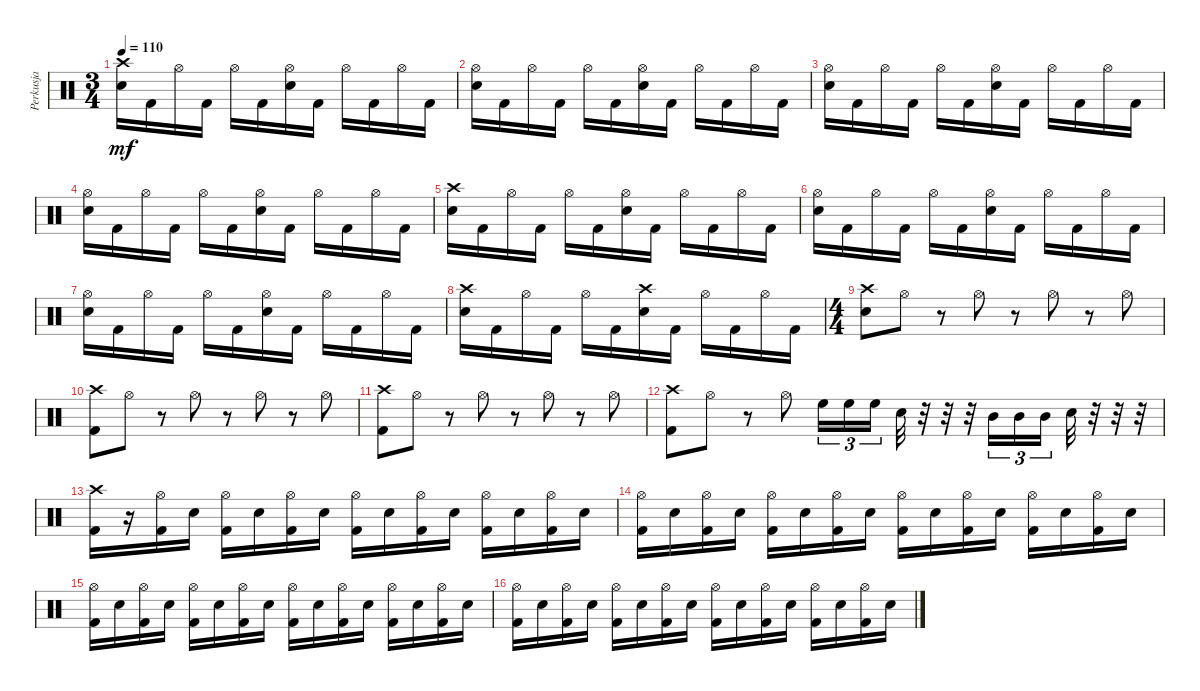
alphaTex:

\track ("Perkusja" "Perkusja") {instrument percussion}
\staff {score}
\articulation defaults
\ts (3 4)
\tempo 110
\clef neutral
\ks c
("Crash high (hit)" "Snare (hit) 2").16{dy mf} "Kick (hit) 2".16 "Hi-Hat (open)".16 "Kick (hit) 2".16 "Hi-Hat (open)".16 "Kick (hit) 2".16 ("Hi-Hat (open)" "Snare (hit) 2").16 "Kick (hit) 2".16 "Hi-Hat (open)".16 "Kick (hit) 2".16 "Hi-Hat (open)".16 "Kick (hit) 2".16 |
("Hi-Hat (open)" "Snare (hit) 2").16 "Kick (hit) 2".16 "Hi-Hat (open)".16 "Kick (hit) 2".16 "Hi-Hat (open)".16 "Kick (hit) 2".16 ("Hi-Hat (open)" "Snare (hit) 2").16 "Kick (hit) 2".16 "Hi-Hat (open)".16 "Kick (hit) 2".16 "Hi-Hat (open)".16 "Kick (hit) 2".16 |
("Hi-Hat (open)" "Snare (hit) 2").16 "Kick (hit) 2".16 "Hi-Hat (open)".16 "Kick (hit) 2".16 "Hi-Hat (open)".16 "Kick (hit) 2".16 ("Hi-Hat (open)" "Snare (hit) 2").16 "Kick (hit) 2".16 "Hi-Hat (open)".16 "Kick (hit) 2".16 "Hi-Hat (open)".16 "Kick (hit) 2".16 |
("Hi-Hat (open)" "Snare (hit) 2").16 "Kick (hit) 2".16 "Hi-Hat (open)".16 "Kick (hit) 2".16 "Hi-Hat (open)".16 "Kick (hit) 2".16 ("Hi-Hat (open)" "Snare (hit) 2").16 "Kick (hit) 2".16 "Hi-Hat (open)".16 "Kick (hit) 2".16 "Hi-Hat (open)".16 "Kick (hit) 2".16 |
("Crash high (hit)" "Snare (hit) 2").16 "Kick (hit) 2".16 "Hi-Hat (open)".16 "Kick (hit) 2".16 "Hi-Hat (open)".16 "Kick (hit) 2".16 ("Hi-Hat (open)" "Snare (hit) 2").16 "Kick (hit) 2".16 "Hi-Hat (open)".16 "Kick (hit) 2".16 "Hi-Hat (open)".16 "Kick (hit) 2".16 |
("Hi-Hat (open)" "Snare (hit) 2").16 "Kick (hit) 2".16 "Hi-Hat (open)".16 "Kick (hit) 2".16 "Hi-Hat (open)".16 "Kick (hit) 2".16 ("Hi-Hat (open)" "Snare (hit) 2").16 "Kick (hit) 2".16 "Hi-Hat (open)".16 "Kick (hit) 2".16 "Hi-Hat (open)".16 "Kick (hit) 2".16 |
("Hi-Hat (open)" "Snare (hit) 2").16 "Kick (hit) 2".16 "Hi-Hat (open)".16 "Kick (hit) 2".16 "Hi-Hat (open)".16 "Kick (hit) 2".16 ("Hi-Hat (open)" "Snare (hit) 2").16 "Kick (hit) 2".16 "Hi-Hat (open)".16 "Kick (hit) 2".16 "Hi-Hat (open)".16 "Kick (hit) 2".16 |
("Crash high (hit)" "Snare (hit) 2").16 "Kick (hit) 2".16 "Hi-Hat (open)".16 "Kick (hit) 2".16 "Hi-Hat (open)".16 "Kick (hit) 2".16 ("Crash high (hit)" "Snare (hit) 2").16 "Kick (hit) 2".16 "Hi-Hat (open)".16 "Kick (hit) 2".16 "Hi-Hat (open)".16 "Kick (hit) 2".16 |
\ts (4 4)
("Crash high (hit)" "Snare (hit) 2").8 "Hi-Hat (open)".8 r.8 "Hi-Hat (open)".8 r.8 "Hi-Hat (open)".8 r.8 "Hi-Hat (open)".8 |
("Crash high (hit)" "Kick (hit) 2").8 "Hi-Hat (open)".8 r.8 "Hi-Hat (open)".8 r.8 "Hi-Hat (open)".8 r.8 "Hi-Hat (open)".8 |
("Crash high (hit)" "Kick (hit) 2").8 "Hi-Hat (open)".8 r.8 "Hi-Hat (open)".8 r.8 "Hi-Hat (open)".8 r.8 "Hi-Hat (open)".8 |
("Crash high (hit)" "Kick (hit) 2").8 "Hi-Hat (open)".8 r.8 "Hi-Hat (open)".8 "High Floor Tom (hit)".16{tu (3 2)} "High Floor Tom (hit)".16{tu (3 2)} "High Floor Tom (hit)".16{tu (3 2) beam splitsecondary} "Snare (hit) 2".32 r.32 r.32 r.32 "Mid Tom (hit)".16{tu (3 2)} "Mid Tom (hit)".16{tu (3 2)} "Mid Tom (hit)".16{tu (3 2) beam splitsecondary} "Snare (hit) 2".32 r.32 r.32 r.32 |
("Crash high (hit)" "Kick (hit) 2").16 r.16 ("Hi-Hat (open)" "Kick (hit) 2").16 "Snare (hit) 2".16 ("Hi-Hat (open)" "Kick (hit) 2").16 "Snare (hit) 2".16 ("Hi-Hat (open)" "Kick (hit) 2").16 "Snare (hit) 2".16 ("Hi-Hat (open)" "Kick (hit) 2").16 "Snare (hit) 2".16 ("Hi-Hat (open)" "Kick (hit) 2").16 "Snare (hit) 2".16 ("Hi-Hat (open)" "Kick (hit) 2").16 "Snare (hit) 2".16 ("Hi-Hat (open)" "Kick (hit) 2").16 "Snare (hit) 2".16 |
("Hi-Hat (open)" "Kick (hit) 2").16 "Snare (hit) 2".16 ("Hi-Hat (open)" "Kick (hit) 2").16 "Snare (hit) 2".16 ("Hi-Hat (open)" "Kick (hit) 2").16 "Snare (hit) 2".16 ("Hi-Hat (open)" "Kick (hit) 2").16 "Snare (hit) 2".16 ("Hi-Hat (open)" "Kick (hit) 2").16 "Snare (hit) 2".16 ("Hi-Hat (open)" "Kick (hit) 2").16 "Snare (hit) 2".16 ("Hi-Hat (open)" "Kick (hit) 2").16 "Snare (hit) 2".16 ("Hi-Hat (open)" "Kick (hit) 2").16 "Snare (hit) 2".16 |
("Hi-Hat (open)" "Kick (hit) 2").16 "Snare (hit) 2".16 ("Hi-Hat (open)" "Kick (hit) 2").16 "Snare (hit) 2".16 ("Hi-Hat (open)" "Kick (hit) 2").16 "Snare (hit) 2".16 ("Hi-Hat (open)" "Kick (hit) 2").16 "Snare (hit) 2".16 ("Hi-Hat (open)" "Kick (hit) 2").16 "Snare (hit) 2".16 ("Hi-Hat (open)" "Kick (hit) 2").16 "Snare (hit) 2".16 ("Hi-Hat (open)" "Kick (hit) 2").16 "Snare (hit) 2".16 ("Hi-Hat (open)" "Kick (hit) 2").16 "Snare (hit) 2".16 |
("Hi-Hat (open)" "Kick (hit) 2").16 "Snare (hit) 2".16 ("Hi-Hat (open)" "Kick (hit) 2").16 "Snare (hit) 2".16 ("Hi-Hat (open)" "Kick (hit) 2").16 "Snare (hit) 2".16 ("Hi-Hat (open)" "Kick (hit) 2").16 "Snare (hit) 2".16 ("Hi-Hat (open)" "Kick (hit) 2").16 "Snare (hit) 2".16 ("Hi-Hat (open)" "Kick (hit) 2").16 "Snare (hit) 2".16 ("Hi-Hat (open)" "Kick (hit) 2").16 "Snare (hit) 2".16 ("Hi-Hat (open)" "Kick (hit) 2").16 "Snare (hit) 2".16
